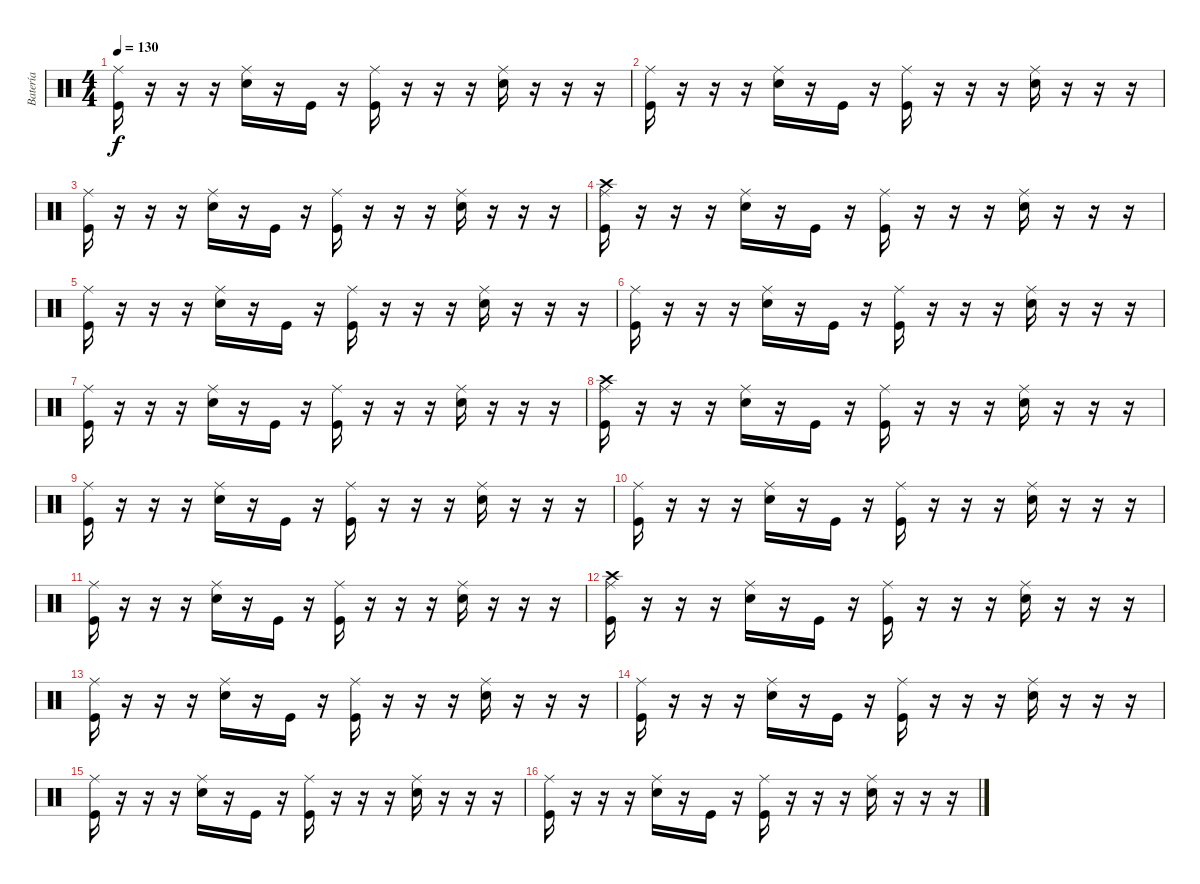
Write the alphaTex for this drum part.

\track ("Batería" "Batería") {instrument percussion}
\staff {score}
\articulation defaults
\ts (4 4)
\tempo 130
\clef neutral
\ks c
("Ride (middle)" "Kick (hit)").16{dy f} r.16 r.16 r.16 ("Ride (middle)" "Snare (hit) 2").16 r.16 "Kick (hit)".16 r.16 ("Ride (middle)" "Kick (hit)").16 r.16 r.16 r.16 ("Ride (middle)" "Snare (hit) 2").16 r.16 r.16 r.16 |
("Ride (middle)" "Kick (hit)").16 r.16 r.16 r.16 ("Ride (middle)" "Snare (hit) 2").16 r.16 "Kick (hit)".16 r.16 ("Ride (middle)" "Kick (hit)").16 r.16 r.16 r.16 ("Ride (middle)" "Snare (hit) 2").16 r.16 r.16 r.16 |
("Ride (middle)" "Kick (hit)").16 r.16 r.16 r.16 ("Ride (middle)" "Snare (hit) 2").16 r.16 "Kick (hit)".16 r.16 ("Ride (middle)" "Kick (hit)").16 r.16 r.16 r.16 ("Ride (middle)" "Snare (hit) 2").16 r.16 r.16 r.16 |
("Crash high (hit)" "Ride (middle)" "Kick (hit)").16 r.16 r.16 r.16 ("Ride (middle)" "Snare (hit) 2").16 r.16 "Kick (hit)".16 r.16 ("Ride (middle)" "Kick (hit)").16 r.16 r.16 r.16 ("Ride (middle)" "Snare (hit) 2").16 r.16 r.16 r.16 |
("Ride (middle)" "Kick (hit)").16 r.16 r.16 r.16 ("Ride (middle)" "Snare (hit) 2").16 r.16 "Kick (hit)".16 r.16 ("Ride (middle)" "Kick (hit)").16 r.16 r.16 r.16 ("Ride (middle)" "Snare (hit) 2").16 r.16 r.16 r.16 |
("Ride (middle)" "Kick (hit)").16 r.16 r.16 r.16 ("Ride (middle)" "Snare (hit) 2").16 r.16 "Kick (hit)".16 r.16 ("Ride (middle)" "Kick (hit)").16 r.16 r.16 r.16 ("Ride (middle)" "Snare (hit) 2").16 r.16 r.16 r.16 |
("Ride (middle)" "Kick (hit)").16 r.16 r.16 r.16 ("Ride (middle)" "Snare (hit) 2").16 r.16 "Kick (hit)".16 r.16 ("Ride (middle)" "Kick (hit)").16 r.16 r.16 r.16 ("Ride (middle)" "Snare (hit) 2").16 r.16 r.16 r.16 |
("Crash high (hit)" "Ride (middle)" "Kick (hit)").16 r.16 r.16 r.16 ("Ride (middle)" "Snare (hit) 2").16 r.16 "Kick (hit)".16 r.16 ("Ride (middle)" "Kick (hit)").16 r.16 r.16 r.16 ("Ride (middle)" "Snare (hit) 2").16 r.16 r.16 r.16 |
("Ride (middle)" "Kick (hit)").16 r.16 r.16 r.16 ("Ride (middle)" "Snare (hit) 2").16 r.16 "Kick (hit)".16 r.16 ("Ride (middle)" "Kick (hit)").16 r.16 r.16 r.16 ("Ride (middle)" "Snare (hit) 2").16 r.16 r.16 r.16 |
("Ride (middle)" "Kick (hit)").16 r.16 r.16 r.16 ("Ride (middle)" "Snare (hit) 2").16 r.16 "Kick (hit)".16 r.16 ("Ride (middle)" "Kick (hit)").16 r.16 r.16 r.16 ("Ride (middle)" "Snare (hit) 2").16 r.16 r.16 r.16 |
("Ride (middle)" "Kick (hit)").16 r.16 r.16 r.16 ("Ride (middle)" "Snare (hit) 2").16 r.16 "Kick (hit)".16 r.16 ("Ride (middle)" "Kick (hit)").16 r.16 r.16 r.16 ("Ride (middle)" "Snare (hit) 2").16 r.16 r.16 r.16 |
("Crash high (hit)" "Ride (middle)" "Kick (hit)").16 r.16 r.16 r.16 ("Ride (middle)" "Snare (hit) 2").16 r.16 "Kick (hit)".16 r.16 ("Ride (middle)" "Kick (hit)").16 r.16 r.16 r.16 ("Ride (middle)" "Snare (hit) 2").16 r.16 r.16 r.16 |
("Ride (middle)" "Kick (hit)").16 r.16 r.16 r.16 ("Ride (middle)" "Snare (hit) 2").16 r.16 "Kick (hit)".16 r.16 ("Ride (middle)" "Kick (hit)").16 r.16 r.16 r.16 ("Ride (middle)" "Snare (hit) 2").16 r.16 r.16 r.16 |
("Ride (middle)" "Kick (hit)").16 r.16 r.16 r.16 ("Ride (middle)" "Snare (hit) 2").16 r.16 "Kick (hit)".16 r.16 ("Ride (middle)" "Kick (hit)").16 r.16 r.16 r.16 ("Ride (middle)" "Snare (hit) 2").16 r.16 r.16 r.16 |
("Ride (middle)" "Kick (hit)").16 r.16 r.16 r.16 ("Ride (middle)" "Snare (hit) 2").16 r.16 "Kick (hit)".16 r.16 ("Ride (middle)" "Kick (hit)").16 r.16 r.16 r.16 ("Ride (middle)" "Snare (hit) 2").16 r.16 r.16 r.16 |
("Ride (middle)" "Kick (hit)").16 r.16 r.16 r.16 ("Ride (middle)" "Snare (hit) 2").16 r.16 "Kick (hit)".16 r.16 ("Ride (middle)" "Kick (hit)").16 r.16 r.16 r.16 ("Ride (middle)" "Snare (hit) 2").16 r.16 r.16 r.16
